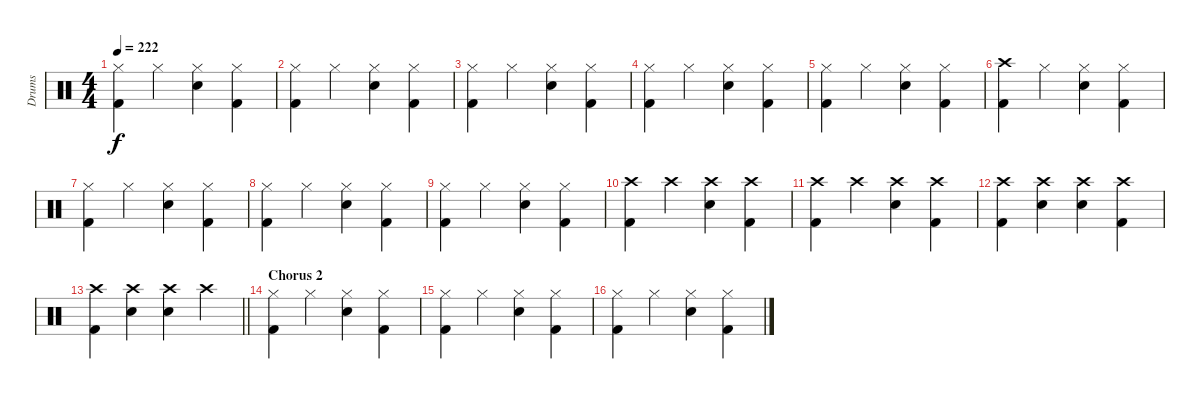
\track ("Drums" "Drums") {instrument percussion}
\staff {score}
\articulation defaults
\ts (4 4)
\tempo 222
\clef neutral
\ks c
("Hi-Hat (closed)" "Kick (hit) 2").4{dy f} "Hi-Hat (closed)".4 ("Hi-Hat (closed)" "Electric Snare (hit)").4 ("Hi-Hat (closed)" "Kick (hit) 2").4 |
("Hi-Hat (closed)" "Kick (hit) 2").4 "Hi-Hat (closed)".4 ("Hi-Hat (closed)" "Electric Snare (hit)").4 ("Hi-Hat (closed)" "Kick (hit) 2").4 |
("Hi-Hat (closed)" "Kick (hit) 2").4 "Hi-Hat (closed)".4 ("Hi-Hat (closed)" "Electric Snare (hit)").4 ("Hi-Hat (closed)" "Kick (hit) 2").4 |
("Hi-Hat (closed)" "Kick (hit) 2").4 "Hi-Hat (closed)".4 ("Hi-Hat (closed)" "Electric Snare (hit)").4 ("Hi-Hat (closed)" "Kick (hit) 2").4 |
("Hi-Hat (closed)" "Kick (hit) 2").4 "Hi-Hat (closed)".4 ("Hi-Hat (closed)" "Electric Snare (hit)").4 ("Hi-Hat (closed)" "Kick (hit) 2").4 |
("Crash high (hit)" "Kick (hit) 2").4 "Hi-Hat (closed)".4 ("Hi-Hat (closed)" "Electric Snare (hit)").4 ("Hi-Hat (closed)" "Kick (hit) 2").4 |
("Hi-Hat (closed)" "Kick (hit) 2").4 "Hi-Hat (closed)".4 ("Hi-Hat (closed)" "Electric Snare (hit)").4 ("Hi-Hat (closed)" "Kick (hit) 2").4 |
("Hi-Hat (closed)" "Kick (hit) 2").4 "Hi-Hat (closed)".4 ("Hi-Hat (closed)" "Electric Snare (hit)").4 ("Hi-Hat (closed)" "Kick (hit) 2").4 |
("Hi-Hat (closed)" "Kick (hit) 2").4 "Hi-Hat (closed)".4 ("Hi-Hat (closed)" "Electric Snare (hit)").4 ("Hi-Hat (closed)" "Kick (hit) 2").4 |
("Crash high (hit)" "Kick (hit) 2").4 "Crash high (hit)".4 ("Crash high (hit)" "Electric Snare (hit)").4 ("Crash high (hit)" "Kick (hit) 2").4 |
("Crash high (hit)" "Kick (hit) 2").4 "Crash high (hit)".4 ("Crash high (hit)" "Electric Snare (hit)").4 ("Crash high (hit)" "Kick (hit) 2").4 |
("Crash high (hit)" "Kick (hit) 2").4 ("Crash high (hit)" "Electric Snare (hit)").4 ("Crash high (hit)" "Electric Snare (hit)").4 ("Crash high (hit)" "Kick (hit) 2").4 |
\barLineRight lightlight
("Crash high (hit)" "Kick (hit) 2").4 ("Crash high (hit)" "Electric Snare (hit)").4 ("Crash high (hit)" "Electric Snare (hit)").4 "Crash high (hit)".4 |
\section ("" "Chorus 2")
("Hi-Hat (closed)" "Kick (hit) 2").4{volume 16} "Hi-Hat (closed)".4 ("Hi-Hat (closed)" "Electric Snare (hit)").4 ("Hi-Hat (closed)" "Kick (hit) 2").4 |
("Hi-Hat (closed)" "Kick (hit) 2").4 "Hi-Hat (closed)".4 ("Hi-Hat (closed)" "Electric Snare (hit)").4 ("Hi-Hat (closed)" "Kick (hit) 2").4 |
("Hi-Hat (closed)" "Kick (hit) 2").4 "Hi-Hat (closed)".4 ("Hi-Hat (closed)" "Electric Snare (hit)").4 ("Hi-Hat (closed)" "Kick (hit) 2").4
